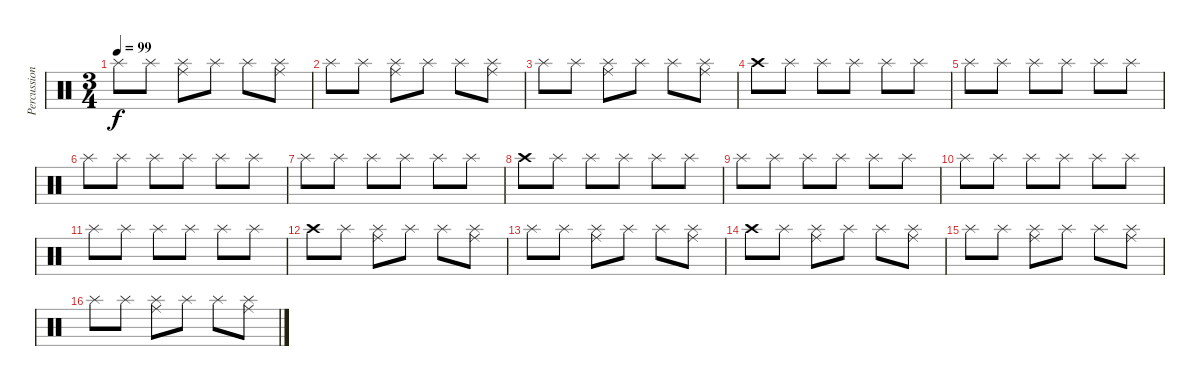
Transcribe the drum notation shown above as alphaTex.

\track ("Percussion2" "Percussion") {instrument percussion}
\staff {score}
\articulation defaults
\ts (3 4)
\tempo 99
\clef neutral
\ks c "Splash (hit)".8{dy f} "Splash (hit)".8
("Ride (middle)" "Splash (hit)").8 "Splash (hit)".8 "Splash (hit)".8 ("Ride (middle)" "Splash (hit)").8 |
"Splash (hit)".8 "Splash (hit)".8 ("Ride (middle)" "Splash (hit)").8 "Splash (hit)".8 "Splash (hit)".8 ("Ride (middle)" "Splash (hit)").8 |
"Splash (hit)".8 "Splash (hit)".8 ("Ride (middle)" "Splash (hit)").8 "Splash (hit)".8 "Splash (hit)".8 ("Ride (middle)" "Splash (hit)").8 |
"Crash high (hit)".8 "Splash (hit)".8 "Splash (hit)".8 "Splash (hit)".8 "Splash (hit)".8 "Splash (hit)".8 |
"Splash (hit)".8 "Splash (hit)".8 "Splash (hit)".8 "Splash (hit)".8 "Splash (hit)".8 "Splash (hit)".8 |
"Splash (hit)".8 "Splash (hit)".8 "Splash (hit)".8 "Splash (hit)".8 "Splash (hit)".8 "Splash (hit)".8 |
"Splash (hit)".8 "Splash (hit)".8 "Splash (hit)".8 "Splash (hit)".8 "Splash (hit)".8 "Splash (hit)".8 |
"Crash high (hit)".8 "Splash (hit)".8 "Splash (hit)".8 "Splash (hit)".8 "Splash (hit)".8 "Splash (hit)".8 |
"Splash (hit)".8 "Splash (hit)".8 "Splash (hit)".8 "Splash (hit)".8 "Splash (hit)".8 "Splash (hit)".8 |
"Splash (hit)".8 "Splash (hit)".8 "Splash (hit)".8 "Splash (hit)".8 "Splash (hit)".8 "Splash (hit)".8 |
"Splash (hit)".8 "Splash (hit)".8 "Splash (hit)".8 "Splash (hit)".8 "Splash (hit)".8 "Splash (hit)".8 |
"Crash high (hit)".8 "Splash (hit)".8 ("Ride (middle)" "Splash (hit)").8 "Splash (hit)".8 "Splash (hit)".8 ("Ride (middle)" "Splash (hit)").8 |
"Splash (hit)".8 "Splash (hit)".8 ("Ride (middle)" "Splash (hit)").8 "Splash (hit)".8 "Splash (hit)".8 ("Ride (middle)" "Splash (hit)").8 |
"Crash high (hit)".8 "Splash (hit)".8 ("Ride (middle)" "Splash (hit)").8 "Splash (hit)".8 "Splash (hit)".8 ("Ride (middle)" "Splash (hit)").8 |
"Splash (hit)".8 "Splash (hit)".8 ("Ride (middle)" "Splash (hit)").8 "Splash (hit)".8 "Splash (hit)".8 ("Ride (middle)" "Splash (hit)").8 |
"Splash (hit)".8 "Splash (hit)".8 ("Ride (middle)" "Splash (hit)").8 "Splash (hit)".8 "Splash (hit)".8 ("Ride (middle)" "Splash (hit)").8
